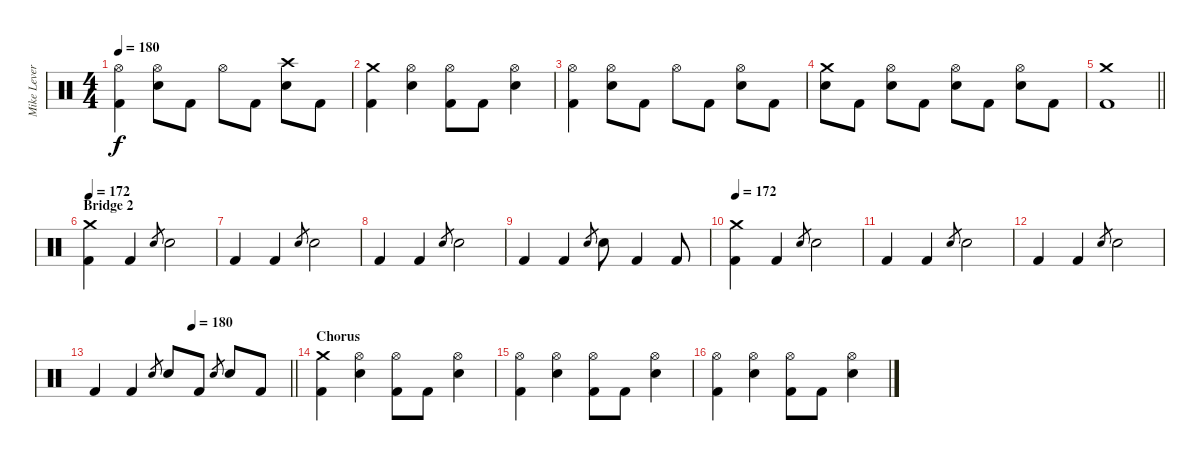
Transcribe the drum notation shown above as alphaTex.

\track ("Mike Leverence - Drums" "Mike Lever") {instrument percussion}
\staff {score}
\articulation defaults
\ts (4 4)
\tempo 180
\clef neutral
\ks c
("Hi-Hat (open)" "Kick (hit) 2").4{dy f} ("Hi-Hat (open)" "Electric Snare (hit)").8 "Kick (hit) 2".8 "Hi-Hat (open)".8 "Kick (hit) 2".8 ("Crash high (hit)" "Electric Snare (hit)").8 "Kick (hit) 2".8 |
("Crash medium (hit)" "Kick (hit) 2").4 ("Hi-Hat (open)" "Electric Snare (hit)").4 ("Hi-Hat (open)" "Kick (hit) 2").8 "Kick (hit) 2".8 ("Hi-Hat (open)" "Electric Snare (hit)").4 |
("Hi-Hat (open)" "Kick (hit) 2").4 ("Hi-Hat (open)" "Electric Snare (hit)").8 "Kick (hit) 2".8 "Hi-Hat (open)".8 "Kick (hit) 2".8 ("Hi-Hat (open)" "Electric Snare (hit)").8 "Kick (hit) 2".8 |
("Crash medium (hit)" "Electric Snare (hit)").8 "Kick (hit) 2".8 ("Hi-Hat (open)" "Electric Snare (hit)").8 "Kick (hit) 2".8 ("Hi-Hat (open)" "Electric Snare (hit)").8 "Kick (hit) 2".8 ("Hi-Hat (open)" "Electric Snare (hit)").8 "Kick (hit) 2".8 |
\barLineRight lightlight
("Crash medium (hit)" "Kick (hit) 2").1 |
\section ("" "Bridge 2")
\tempo 172
("Crash medium (hit)" "Kick (hit) 2").4 "Kick (hit) 2".4 "Electric Snare (hit)".8{gr} "Electric Snare (hit)".2 |
"Kick (hit) 2".4 "Kick (hit) 2".4 "Electric Snare (hit)".8{gr} "Electric Snare (hit)".2 |
"Kick (hit) 2".4 "Kick (hit) 2".4 "Electric Snare (hit)".8{gr} "Electric Snare (hit)".2 |
"Kick (hit) 2".4 "Kick (hit) 2".4 "Electric Snare (hit)".8{gr} "Electric Snare (hit)".8 "Kick (hit) 2".4 "Kick (hit) 2".8 |
\tempo 172
("Crash medium (hit)" "Kick (hit) 2").4 "Kick (hit) 2".4 "Electric Snare (hit)".8{gr} "Electric Snare (hit)".2 |
"Kick (hit) 2".4 "Kick (hit) 2".4 "Electric Snare (hit)".8{gr} "Electric Snare (hit)".2 |
"Kick (hit) 2".4 "Kick (hit) 2".4 "Electric Snare (hit)".8{gr} "Electric Snare (hit)".2 |
\tempo (180 0.5)
\barLineRight lightlight "Kick (hit) 2".4 "Kick (hit) 2".4 "Electric Snare (hit)".8{gr} "Electric Snare (hit)".8 "Kick (hit) 2".8 "Electric Snare (hit)".8{gr} "Electric Snare (hit)".8 "Kick (hit) 2".8
|
\section ("" "Chorus")
("Crash medium (hit)" "Kick (hit) 2").4 ("Hi-Hat (open)" "Electric Snare (hit)").4 ("Hi-Hat (open)" "Kick (hit) 2").8 "Kick (hit) 2".8 ("Hi-Hat (open)" "Electric Snare (hit)").4 |
("Hi-Hat (open)" "Kick (hit) 2").4 ("Hi-Hat (open)" "Electric Snare (hit)").4 ("Hi-Hat (open)" "Kick (hit) 2").8 "Kick (hit) 2".8 ("Hi-Hat (open)" "Electric Snare (hit)").4 |
("Hi-Hat (open)" "Kick (hit) 2").4 ("Hi-Hat (open)" "Electric Snare (hit)").4 ("Hi-Hat (open)" "Kick (hit) 2").8 "Kick (hit) 2".8 ("Hi-Hat (open)" "Electric Snare (hit)").4
